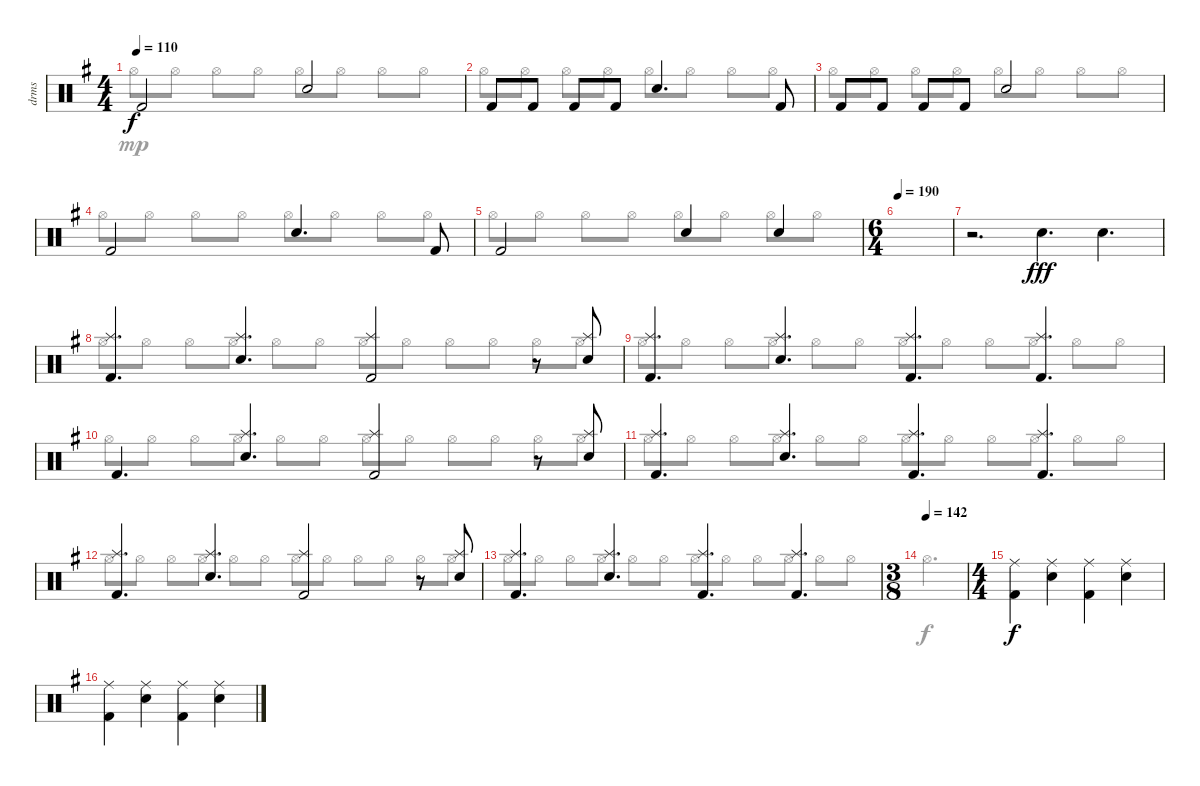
\track ("drms" "drms") {instrument percussion}
\staff {score}
\articulation defaults
\voice
\ts (4 4)
\tempo 110
\clef neutral
\ks g "Kick (hit) 2".2{dy f} "Snare (hit) 2".2
|
"Kick (hit) 2".8 "Kick (hit) 2".8 "Kick (hit) 2".8 "Kick (hit) 2".8 "Snare (hit) 2".4{d} "Kick (hit) 2".8 |
"Kick (hit) 2".8 "Kick (hit) 2".8 "Kick (hit) 2".8 "Kick (hit) 2".8 "Snare (hit) 2".2 |
"Kick (hit) 2".2 "Snare (hit) 2".4{d} "Kick (hit) 2".8 |
"Kick (hit) 2".2 "Snare (hit) 2".4 "Snare (hit) 2".4 |
\ts (6 4)
\tempo 190
|
r.2{d} "Snare (hit) 2".4{d dy fff} "Snare (hit) 2".4{d} |
("Splash (hit)" "Kick (hit) 2").4{d} ("Splash (hit)" "Snare (hit) 2").4{d} ("Splash (hit)" "Kick (hit) 2").2 r.8 ("Splash (hit)" "Snare (hit) 2").8 |
("Splash (hit)" "Kick (hit) 2").4{d} ("Splash (hit)" "Snare (hit) 2").4{d} ("Splash (hit)" "Kick (hit) 2").4{d} ("Splash (hit)" "Kick (hit) 2").4{d} |
"Kick (hit) 2".4{d} ("Splash (hit)" "Snare (hit) 2").4{d} ("Splash (hit)" "Kick (hit) 2").2 r.8 ("Splash (hit)" "Snare (hit) 2").8 |
("Splash (hit)" "Kick (hit) 2").4{d} ("Splash (hit)" "Snare (hit) 2").4{d} ("Splash (hit)" "Kick (hit) 2").4{d} ("Splash (hit)" "Kick (hit) 2").4{d} |
("Splash (hit)" "Kick (hit) 2").4{d} ("Splash (hit)" "Snare (hit) 2").4{d} ("Splash (hit)" "Kick (hit) 2").2 r.8 ("Splash (hit)" "Snare (hit) 2").8 |
("Splash (hit)" "Kick (hit) 2").4{d} ("Splash (hit)" "Snare (hit) 2").4{d} ("Splash (hit)" "Kick (hit) 2").4{d} ("Splash (hit)" "Kick (hit) 2").4{d} |
\ts (3 8)
\tempo 142
|
\ts (4 4)
("Ride (middle)" "Kick (hit) 2").4{dy f} ("Ride (middle)" "Snare (hit) 2").4 ("Ride (middle)" "Kick (hit) 2").4 ("Ride (middle)" "Snare (hit) 2").4 |
("Ride (middle)" "Kick (hit) 2").4 ("Ride (middle)" "Snare (hit) 2").4 ("Ride (middle)" "Kick (hit) 2").4 ("Ride (middle)" "Snare (hit) 2").4
\voice
\clef neutral
\ottava regular
\simile none
\ks g "Hi-Hat (open)".8{dy mp} "Hi-Hat (open)".8 "Hi-Hat (open)".8 "Hi-Hat (open)".8 "Hi-Hat (open)".8 "Hi-Hat (open)".8 "Hi-Hat (open)".8 "Hi-Hat (open)".8
|
"Hi-Hat (open)".8 "Hi-Hat (open)".8 "Hi-Hat (open)".8 "Hi-Hat (open)".8 "Hi-Hat (open)".8 "Hi-Hat (open)".8 "Hi-Hat (open)".8 "Hi-Hat (open)".8 |
"Hi-Hat (open)".8 "Hi-Hat (open)".8 "Hi-Hat (open)".8 "Hi-Hat (open)".8 "Hi-Hat (open)".8 "Hi-Hat (open)".8 "Hi-Hat (open)".8 "Hi-Hat (open)".8 |
"Hi-Hat (open)".8 "Hi-Hat (open)".8 "Hi-Hat (open)".8 "Hi-Hat (open)".8 "Hi-Hat (open)".8 "Hi-Hat (open)".8 "Hi-Hat (open)".8 "Hi-Hat (open)".8 |
"Hi-Hat (open)".8 "Hi-Hat (open)".8 "Hi-Hat (open)".8 "Hi-Hat (open)".8 "Hi-Hat (open)".8 "Hi-Hat (open)".8 "Hi-Hat (open)".8 "Hi-Hat (open)".8 |
|
|
"Hi-Hat (open)".8 "Hi-Hat (open)".8 "Hi-Hat (open)".8 "Hi-Hat (open)".8 "Hi-Hat (open)".8 "Hi-Hat (open)".8 "Hi-Hat (open)".8 "Hi-Hat (open)".8 "Hi-Hat (open)".8 "Hi-Hat (open)".8 "Hi-Hat (open)".8 "Hi-Hat (open)".8 |
"Hi-Hat (open)".8 "Hi-Hat (open)".8 "Hi-Hat (open)".8 "Hi-Hat (open)".8 "Hi-Hat (open)".8 "Hi-Hat (open)".8 "Hi-Hat (open)".8 "Hi-Hat (open)".8 "Hi-Hat (open)".8 "Hi-Hat (open)".8 "Hi-Hat (open)".8 "Hi-Hat (open)".8 |
"Hi-Hat (open)".8 "Hi-Hat (open)".8 "Hi-Hat (open)".8 "Hi-Hat (open)".8 "Hi-Hat (open)".8 "Hi-Hat (open)".8 "Hi-Hat (open)".8 "Hi-Hat (open)".8 "Hi-Hat (open)".8 "Hi-Hat (open)".8 "Hi-Hat (open)".8 "Hi-Hat (open)".8 |
"Hi-Hat (open)".8 "Hi-Hat (open)".8 "Hi-Hat (open)".8 "Hi-Hat (open)".8 "Hi-Hat (open)".8 "Hi-Hat (open)".8 "Hi-Hat (open)".8 "Hi-Hat (open)".8 "Hi-Hat (open)".8 "Hi-Hat (open)".8 "Hi-Hat (open)".8 "Hi-Hat (open)".8 |
"Hi-Hat (open)".8 "Hi-Hat (open)".8 "Hi-Hat (open)".8 "Hi-Hat (open)".8 "Hi-Hat (open)".8 "Hi-Hat (open)".8 "Hi-Hat (open)".8 "Hi-Hat (open)".8 "Hi-Hat (open)".8 "Hi-Hat (open)".8 "Hi-Hat (open)".8 "Hi-Hat (open)".8 |
"Hi-Hat (open)".8 "Hi-Hat (open)".8 "Hi-Hat (open)".8 "Hi-Hat (open)".8 "Hi-Hat (open)".8 "Hi-Hat (open)".8 "Hi-Hat (open)".8 "Hi-Hat (open)".8 "Hi-Hat (open)".8 "Hi-Hat (open)".8 "Hi-Hat (open)".8 "Hi-Hat (open)".8 |
"Hi-Hat (open)".4{d dy f} |
|
